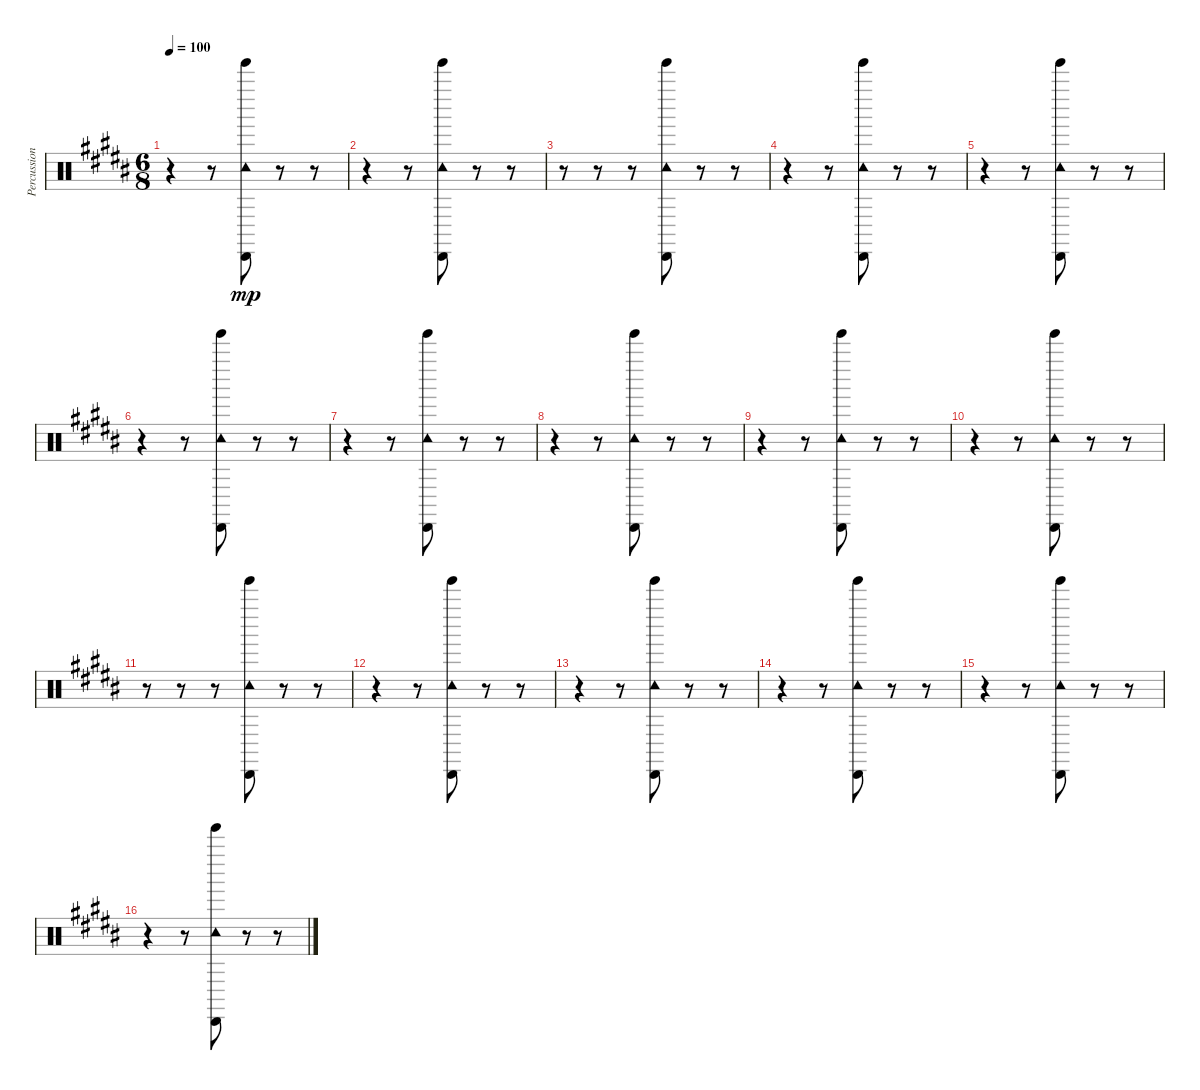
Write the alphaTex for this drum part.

\track ("Percussion" "Percussion") {instrument percussion}
\staff {score}
\articulation defaults
\ts (6 8)
\tempo 100
\clef neutral
\ks b
r.4{dy f} r.8 ("Tambourine (hit)" "Cabasa (hit)" "Tinkle Bell (hit)").8{dy mp} r.8 r.8 |
r.4 r.8 ("Tambourine (hit)" "Cabasa (hit)" "Tinkle Bell (hit)").8 r.8 r.8 |
r.8 r.8 r.8 ("Tambourine (hit)" "Cabasa (hit)" "Tinkle Bell (hit)").8 r.8 r.8 |
r.4 r.8 ("Tambourine (hit)" "Cabasa (hit)" "Tinkle Bell (hit)").8 r.8 r.8 |
r.4 r.8 ("Tambourine (hit)" "Cabasa (hit)" "Tinkle Bell (hit)").8 r.8 r.8 |
r.4 r.8 ("Tambourine (hit)" "Cabasa (hit)" "Tinkle Bell (hit)").8 r.8 r.8 |
r.4 r.8 ("Tambourine (hit)" "Cabasa (hit)" "Tinkle Bell (hit)").8 r.8 r.8 |
r.4 r.8 ("Tambourine (hit)" "Cabasa (hit)" "Tinkle Bell (hit)").8 r.8 r.8 |
r.4 r.8 ("Tambourine (hit)" "Cabasa (hit)" "Tinkle Bell (hit)").8 r.8 r.8 |
r.4 r.8 ("Tambourine (hit)" "Cabasa (hit)" "Tinkle Bell (hit)").8 r.8 r.8 |
r.8 r.8 r.8 ("Tambourine (hit)" "Cabasa (hit)" "Tinkle Bell (hit)").8 r.8 r.8 |
r.4 r.8 ("Tambourine (hit)" "Cabasa (hit)" "Tinkle Bell (hit)").8 r.8 r.8 |
r.4 r.8 ("Tambourine (hit)" "Cabasa (hit)" "Tinkle Bell (hit)").8 r.8 r.8 |
r.4 r.8 ("Tambourine (hit)" "Cabasa (hit)" "Tinkle Bell (hit)").8 r.8 r.8 |
r.4 r.8 ("Tambourine (hit)" "Cabasa (hit)" "Tinkle Bell (hit)").8 r.8 r.8 |
r.4 r.8 ("Tambourine (hit)" "Cabasa (hit)" "Tinkle Bell (hit)").8 r.8 r.8
